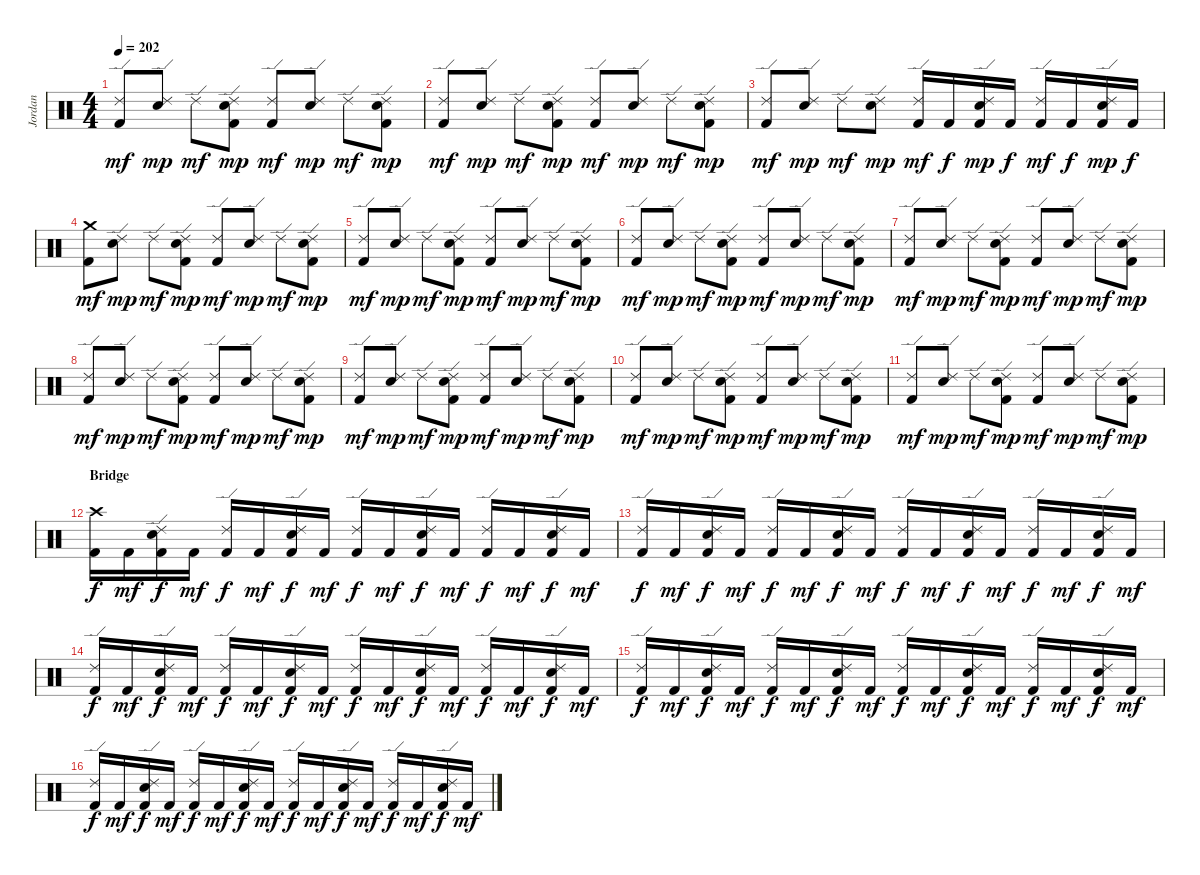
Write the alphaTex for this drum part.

\track ("Jordan" "Jordan") {instrument percussion}
\staff {score}
\articulation defaults
\ts (4 4)
\tempo 202
\clef neutral
\ks c
("Ride (edge) 2" "Kick (hit) 2").8{dy mf} ("Ride (edge) 2" "Electric Snare (hit)").8{dy mp} "Ride (edge) 2".8{dy mf} ("Ride (edge) 2" "Electric Snare (hit)" "Kick (hit) 2").8{dy mp} ("Ride (edge) 2" "Kick (hit) 2").8{dy mf} ("Ride (edge) 2" "Electric Snare (hit)").8{dy mp} "Ride (edge) 2".8{dy mf} ("Ride (edge) 2" "Electric Snare (hit)" "Kick (hit) 2").8{dy mp} |
("Ride (edge) 2" "Kick (hit) 2").8{dy mf} ("Ride (edge) 2" "Electric Snare (hit)").8{dy mp} "Ride (edge) 2".8{dy mf} ("Ride (edge) 2" "Electric Snare (hit)" "Kick (hit) 2").8{dy mp} ("Ride (edge) 2" "Kick (hit) 2").8{dy mf} ("Ride (edge) 2" "Electric Snare (hit)").8{dy mp} "Ride (edge) 2".8{dy mf} ("Ride (edge) 2" "Electric Snare (hit)" "Kick (hit) 2").8{dy mp} |
("Ride (edge) 2" "Kick (hit) 2").8{dy mf} ("Ride (edge) 2" "Electric Snare (hit)").8{dy mp} "Ride (edge) 2".8{dy mf} ("Ride (edge) 2" "Electric Snare (hit)").8{dy mp} ("Ride (edge) 2" "Kick (hit) 2").16{dy mf} "Kick (hit) 2".16{dy f} ("Ride (edge) 2" "Electric Snare (hit)" "Kick (hit) 2").16{dy mp} "Kick (hit) 2".16{dy f} ("Ride (edge) 2" "Kick (hit) 2").16{dy mf} "Kick (hit) 2".16{dy f} ("Ride (edge) 2" "Electric Snare (hit)" "Kick (hit) 2").16{dy mp} "Kick (hit) 2".16{dy f} |
("Crash medium (hit)" "Kick (hit) 2").8{dy mf} ("Ride (edge) 2" "Electric Snare (hit)").8{dy mp} "Ride (edge) 2".8{dy mf} ("Ride (edge) 2" "Electric Snare (hit)" "Kick (hit) 2").8{dy mp} ("Ride (edge) 2" "Kick (hit) 2").8{dy mf} ("Ride (edge) 2" "Electric Snare (hit)").8{dy mp} "Ride (edge) 2".8{dy mf} ("Ride (edge) 2" "Electric Snare (hit)" "Kick (hit) 2").8{dy mp} |
("Ride (edge) 2" "Kick (hit) 2").8{dy mf} ("Ride (edge) 2" "Electric Snare (hit)").8{dy mp} "Ride (edge) 2".8{dy mf} ("Ride (edge) 2" "Electric Snare (hit)" "Kick (hit) 2").8{dy mp} ("Ride (edge) 2" "Kick (hit) 2").8{dy mf} ("Ride (edge) 2" "Electric Snare (hit)").8{dy mp} "Ride (edge) 2".8{dy mf} ("Ride (edge) 2" "Electric Snare (hit)" "Kick (hit) 2").8{dy mp} |
("Ride (edge) 2" "Kick (hit) 2").8{dy mf} ("Ride (edge) 2" "Electric Snare (hit)").8{dy mp} "Ride (edge) 2".8{dy mf} ("Ride (edge) 2" "Electric Snare (hit)" "Kick (hit) 2").8{dy mp} ("Ride (edge) 2" "Kick (hit) 2").8{dy mf} ("Ride (edge) 2" "Electric Snare (hit)").8{dy mp} "Ride (edge) 2".8{dy mf} ("Ride (edge) 2" "Electric Snare (hit)" "Kick (hit) 2").8{dy mp} |
("Ride (edge) 2" "Kick (hit) 2").8{dy mf} ("Ride (edge) 2" "Electric Snare (hit)").8{dy mp} "Ride (edge) 2".8{dy mf} ("Ride (edge) 2" "Electric Snare (hit)" "Kick (hit) 2").8{dy mp} ("Ride (edge) 2" "Kick (hit) 2").8{dy mf} ("Ride (edge) 2" "Electric Snare (hit)").8{dy mp} "Ride (edge) 2".8{dy mf} ("Ride (edge) 2" "Electric Snare (hit)" "Kick (hit) 2").8{dy mp} |
("Ride (edge) 2" "Kick (hit) 2").8{dy mf} ("Ride (edge) 2" "Electric Snare (hit)").8{dy mp} "Ride (edge) 2".8{dy mf} ("Ride (edge) 2" "Electric Snare (hit)" "Kick (hit) 2").8{dy mp} ("Ride (edge) 2" "Kick (hit) 2").8{dy mf} ("Ride (edge) 2" "Electric Snare (hit)").8{dy mp} "Ride (edge) 2".8{dy mf} ("Ride (edge) 2" "Electric Snare (hit)" "Kick (hit) 2").8{dy mp} |
("Ride (edge) 2" "Kick (hit) 2").8{dy mf} ("Ride (edge) 2" "Electric Snare (hit)").8{dy mp} "Ride (edge) 2".8{dy mf} ("Ride (edge) 2" "Electric Snare (hit)" "Kick (hit) 2").8{dy mp} ("Ride (edge) 2" "Kick (hit) 2").8{dy mf} ("Ride (edge) 2" "Electric Snare (hit)").8{dy mp} "Ride (edge) 2".8{dy mf} ("Ride (edge) 2" "Electric Snare (hit)" "Kick (hit) 2").8{dy mp} |
("Ride (edge) 2" "Kick (hit) 2").8{dy mf} ("Ride (edge) 2" "Electric Snare (hit)").8{dy mp} "Ride (edge) 2".8{dy mf} ("Ride (edge) 2" "Electric Snare (hit)" "Kick (hit) 2").8{dy mp} ("Ride (edge) 2" "Kick (hit) 2").8{dy mf} ("Ride (edge) 2" "Electric Snare (hit)").8{dy mp} "Ride (edge) 2".8{dy mf} ("Ride (edge) 2" "Electric Snare (hit)" "Kick (hit) 2").8{dy mp} |
("Ride (edge) 2" "Kick (hit) 2").8{dy mf} ("Ride (edge) 2" "Electric Snare (hit)").8{dy mp} "Ride (edge) 2".8{dy mf} ("Ride (edge) 2" "Electric Snare (hit)" "Kick (hit) 2").8{dy mp} ("Ride (edge) 2" "Kick (hit) 2").8{dy mf} ("Ride (edge) 2" "Electric Snare (hit)").8{dy mp} "Ride (edge) 2".8{dy mf} ("Ride (edge) 2" "Electric Snare (hit)" "Kick (hit) 2").8{dy mp} |
\section ("" "Bridge")
("Crash high (hit)" "Kick (hit) 2").16{dy f} "Kick (hit) 2".16{dy mf} ("Ride (edge) 2" "Electric Snare (hit)" "Kick (hit) 2").16{dy f} "Kick (hit) 2".16{dy mf} ("Ride (edge) 2" "Kick (hit) 2").16{dy f} "Kick (hit) 2".16{dy mf} ("Ride (edge) 2" "Electric Snare (hit)" "Kick (hit) 2").16{dy f} "Kick (hit) 2".16{dy mf} ("Ride (edge) 2" "Kick (hit) 2").16{dy f} "Kick (hit) 2".16{dy mf} ("Ride (edge) 2" "Electric Snare (hit)" "Kick (hit) 2").16{dy f} "Kick (hit) 2".16{dy mf} ("Ride (edge) 2" "Kick (hit) 2").16{dy f} "Kick (hit) 2".16{dy mf} ("Ride (edge) 2" "Electric Snare (hit)" "Kick (hit) 2").16{dy f} "Kick (hit) 2".16{dy mf} |
("Ride (edge) 2" "Kick (hit) 2").16{dy f} "Kick (hit) 2".16{dy mf} ("Ride (edge) 2" "Electric Snare (hit)" "Kick (hit) 2").16{dy f} "Kick (hit) 2".16{dy mf} ("Ride (edge) 2" "Kick (hit) 2").16{dy f} "Kick (hit) 2".16{dy mf} ("Ride (edge) 2" "Electric Snare (hit)" "Kick (hit) 2").16{dy f} "Kick (hit) 2".16{dy mf} ("Ride (edge) 2" "Kick (hit) 2").16{dy f} "Kick (hit) 2".16{dy mf} ("Ride (edge) 2" "Electric Snare (hit)" "Kick (hit) 2").16{dy f} "Kick (hit) 2".16{dy mf} ("Ride (edge) 2" "Kick (hit) 2").16{dy f} "Kick (hit) 2".16{dy mf} ("Ride (edge) 2" "Electric Snare (hit)" "Kick (hit) 2").16{dy f} "Kick (hit) 2".16{dy mf} |
("Ride (edge) 2" "Kick (hit) 2").16{dy f} "Kick (hit) 2".16{dy mf} ("Ride (edge) 2" "Electric Snare (hit)" "Kick (hit) 2").16{dy f} "Kick (hit) 2".16{dy mf} ("Ride (edge) 2" "Kick (hit) 2").16{dy f} "Kick (hit) 2".16{dy mf} ("Ride (edge) 2" "Electric Snare (hit)" "Kick (hit) 2").16{dy f} "Kick (hit) 2".16{dy mf} ("Ride (edge) 2" "Kick (hit) 2").16{dy f} "Kick (hit) 2".16{dy mf} ("Ride (edge) 2" "Electric Snare (hit)" "Kick (hit) 2").16{dy f} "Kick (hit) 2".16{dy mf} ("Ride (edge) 2" "Kick (hit) 2").16{dy f} "Kick (hit) 2".16{dy mf} ("Ride (edge) 2" "Electric Snare (hit)" "Kick (hit) 2").16{dy f} "Kick (hit) 2".16{dy mf} |
("Ride (edge) 2" "Kick (hit) 2").16{dy f} "Kick (hit) 2".16{dy mf} ("Ride (edge) 2" "Electric Snare (hit)" "Kick (hit) 2").16{dy f} "Kick (hit) 2".16{dy mf} ("Ride (edge) 2" "Kick (hit) 2").16{dy f} "Kick (hit) 2".16{dy mf} ("Ride (edge) 2" "Electric Snare (hit)" "Kick (hit) 2").16{dy f} "Kick (hit) 2".16{dy mf} ("Ride (edge) 2" "Kick (hit) 2").16{dy f} "Kick (hit) 2".16{dy mf} ("Ride (edge) 2" "Electric Snare (hit)" "Kick (hit) 2").16{dy f} "Kick (hit) 2".16{dy mf} ("Ride (edge) 2" "Kick (hit) 2").16{dy f} "Kick (hit) 2".16{dy mf} ("Ride (edge) 2" "Electric Snare (hit)" "Kick (hit) 2").16{dy f} "Kick (hit) 2".16{dy mf} |
("Ride (edge) 2" "Kick (hit) 2").16{dy f} "Kick (hit) 2".16{dy mf} ("Ride (edge) 2" "Electric Snare (hit)" "Kick (hit) 2").16{dy f} "Kick (hit) 2".16{dy mf} ("Ride (edge) 2" "Kick (hit) 2").16{dy f} "Kick (hit) 2".16{dy mf} ("Ride (edge) 2" "Electric Snare (hit)" "Kick (hit) 2").16{dy f} "Kick (hit) 2".16{dy mf} ("Ride (edge) 2" "Kick (hit) 2").16{dy f} "Kick (hit) 2".16{dy mf} ("Ride (edge) 2" "Electric Snare (hit)" "Kick (hit) 2").16{dy f} "Kick (hit) 2".16{dy mf} ("Ride (edge) 2" "Kick (hit) 2").16{dy f} "Kick (hit) 2".16{dy mf} ("Ride (edge) 2" "Electric Snare (hit)" "Kick (hit) 2").16{dy f} "Kick (hit) 2".16{dy mf}
